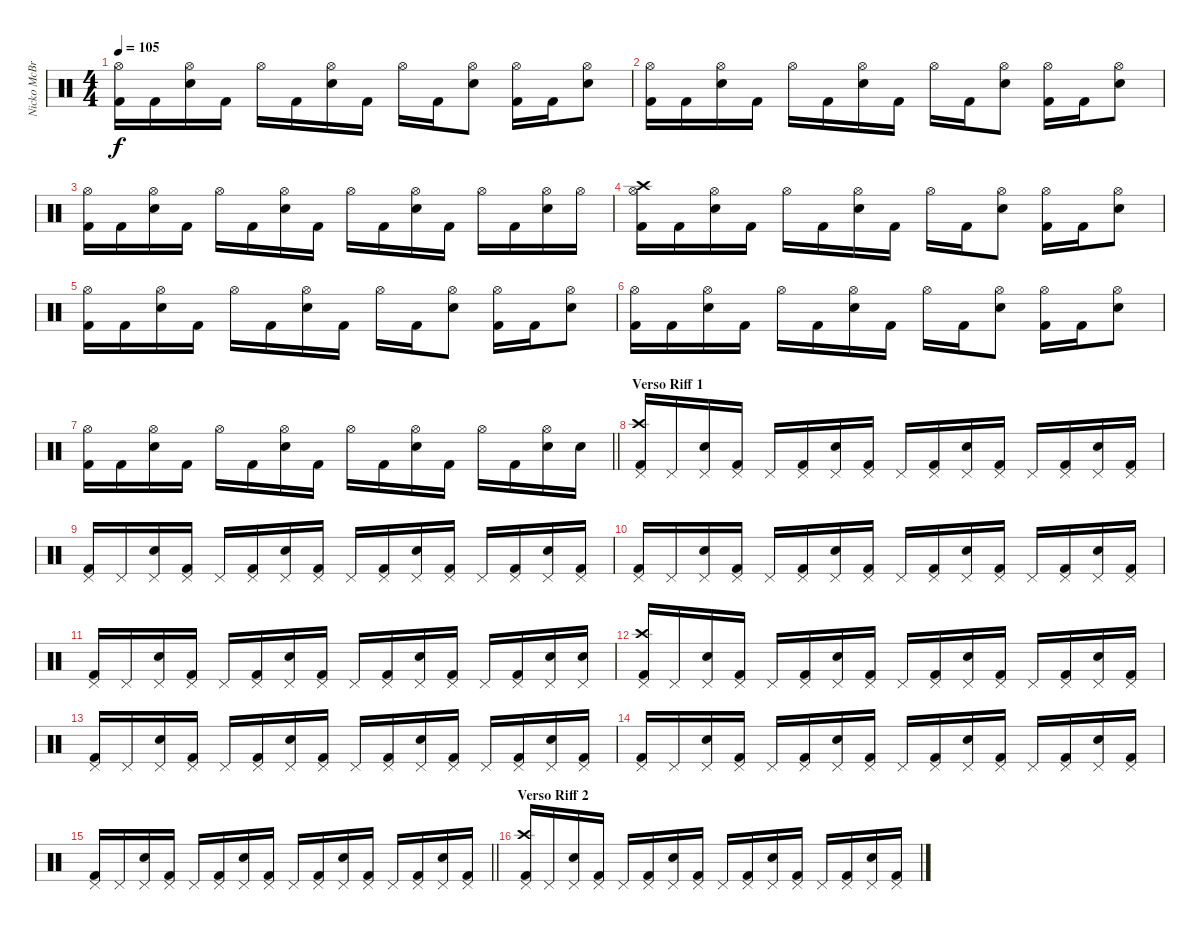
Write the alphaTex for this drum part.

\track ("Nicko McBrain" "Nicko McBr") {instrument percussion}
\staff {score}
\articulation defaults
\ts (4 4)
\tempo 105
\clef neutral
\ks c
("Kick (hit) 2" "Hi-Hat (open)").16{dy f} "Kick (hit) 2".16 ("Snare (hit) 2" "Hi-Hat (open)").16 "Kick (hit) 2".16 "Hi-Hat (open)".16 "Kick (hit) 2".16 ("Snare (hit) 2" "Hi-Hat (open)").16 "Kick (hit) 2".16 "Hi-Hat (open)".16 "Kick (hit) 2".16 ("Snare (hit) 2" "Hi-Hat (open)").8 ("Kick (hit) 2" "Hi-Hat (open)").16 "Kick (hit) 2".16 ("Snare (hit) 2" "Hi-Hat (open)").8 |
("Kick (hit) 2" "Hi-Hat (open)").16 "Kick (hit) 2".16 ("Snare (hit) 2" "Hi-Hat (open)").16 "Kick (hit) 2".16 "Hi-Hat (open)".16 "Kick (hit) 2".16 ("Snare (hit) 2" "Hi-Hat (open)").16 "Kick (hit) 2".16 "Hi-Hat (open)".16 "Kick (hit) 2".16 ("Snare (hit) 2" "Hi-Hat (open)").8 ("Kick (hit) 2" "Hi-Hat (open)").16 "Kick (hit) 2".16 ("Snare (hit) 2" "Hi-Hat (open)").8 |
("Kick (hit) 2" "Hi-Hat (open)").16 "Kick (hit) 2".16 ("Snare (hit) 2" "Hi-Hat (open)").16 "Kick (hit) 2".16 "Hi-Hat (open)".16 "Kick (hit) 2".16 ("Snare (hit) 2" "Hi-Hat (open)").16 "Kick (hit) 2".16 "Hi-Hat (open)".16 "Kick (hit) 2".16 ("Snare (hit) 2" "Hi-Hat (open)").16 "Kick (hit) 2".16 "Hi-Hat (open)".16 "Kick (hit) 2".16 ("Snare (hit) 2" "Hi-Hat (open)").16 "Hi-Hat (open)".16 |
("Kick (hit) 2" "Hi-Hat (open)" "Crash high (hit)").16 "Kick (hit) 2".16 ("Snare (hit) 2" "Hi-Hat (open)").16 "Kick (hit) 2".16 "Hi-Hat (open)".16 "Kick (hit) 2".16 ("Snare (hit) 2" "Hi-Hat (open)").16 "Kick (hit) 2".16 "Hi-Hat (open)".16 "Kick (hit) 2".16 ("Snare (hit) 2" "Hi-Hat (open)").8 ("Kick (hit) 2" "Hi-Hat (open)").16 "Kick (hit) 2".16 ("Snare (hit) 2" "Hi-Hat (open)").8 |
("Kick (hit) 2" "Hi-Hat (open)").16 "Kick (hit) 2".16 ("Snare (hit) 2" "Hi-Hat (open)").16 "Kick (hit) 2".16 "Hi-Hat (open)".16 "Kick (hit) 2".16 ("Snare (hit) 2" "Hi-Hat (open)").16 "Kick (hit) 2".16 "Hi-Hat (open)".16 "Kick (hit) 2".16 ("Snare (hit) 2" "Hi-Hat (open)").8 ("Kick (hit) 2" "Hi-Hat (open)").16 "Kick (hit) 2".16 ("Snare (hit) 2" "Hi-Hat (open)").8 |
("Kick (hit) 2" "Hi-Hat (open)").16 "Kick (hit) 2".16 ("Snare (hit) 2" "Hi-Hat (open)").16 "Kick (hit) 2".16 "Hi-Hat (open)".16 "Kick (hit) 2".16 ("Snare (hit) 2" "Hi-Hat (open)").16 "Kick (hit) 2".16 "Hi-Hat (open)".16 "Kick (hit) 2".16 ("Snare (hit) 2" "Hi-Hat (open)").8 ("Kick (hit) 2" "Hi-Hat (open)").16 "Kick (hit) 2".16 ("Snare (hit) 2" "Hi-Hat (open)").8 |
\barLineRight lightlight
("Kick (hit) 2" "Hi-Hat (open)").16 "Kick (hit) 2".16 ("Snare (hit) 2" "Hi-Hat (open)").16 "Kick (hit) 2".16 "Hi-Hat (open)".16 "Kick (hit) 2".16 ("Snare (hit) 2" "Hi-Hat (open)").16 "Kick (hit) 2".16 "Hi-Hat (open)".16 "Kick (hit) 2".16 ("Snare (hit) 2" "Hi-Hat (open)").16 "Kick (hit) 2".16 "Hi-Hat (open)".16 "Kick (hit) 2".16 ("Snare (hit) 2" "Hi-Hat (open)").16 "Snare (hit) 2".16 |
\section ("" "Verso Riff 1")
("Kick (hit) 2" "Pedal Hi-Hat (hit)" "Crash high (hit)").16 "Pedal Hi-Hat (hit)".16 ("Snare (hit) 2" "Pedal Hi-Hat (hit)").16 ("Kick (hit) 2" "Pedal Hi-Hat (hit)").16 "Pedal Hi-Hat (hit)".16 ("Kick (hit) 2" "Pedal Hi-Hat (hit)").16 ("Snare (hit) 2" "Pedal Hi-Hat (hit)").16 ("Kick (hit) 2" "Pedal Hi-Hat (hit)").16 "Pedal Hi-Hat (hit)".16 ("Kick (hit) 2" "Pedal Hi-Hat (hit)").16 ("Snare (hit) 2" "Pedal Hi-Hat (hit)").16 ("Kick (hit) 2" "Pedal Hi-Hat (hit)").16 "Pedal Hi-Hat (hit)".16 ("Kick (hit) 2" "Pedal Hi-Hat (hit)").16 ("Snare (hit) 2" "Pedal Hi-Hat (hit)").16 ("Kick (hit) 2" "Pedal Hi-Hat (hit)").16 |
("Kick (hit) 2" "Pedal Hi-Hat (hit)").16 "Pedal Hi-Hat (hit)".16 ("Snare (hit) 2" "Pedal Hi-Hat (hit)").16 ("Kick (hit) 2" "Pedal Hi-Hat (hit)").16 "Pedal Hi-Hat (hit)".16 ("Kick (hit) 2" "Pedal Hi-Hat (hit)").16 ("Snare (hit) 2" "Pedal Hi-Hat (hit)").16 ("Kick (hit) 2" "Pedal Hi-Hat (hit)").16 "Pedal Hi-Hat (hit)".16 ("Kick (hit) 2" "Pedal Hi-Hat (hit)").16 ("Snare (hit) 2" "Pedal Hi-Hat (hit)").16 ("Kick (hit) 2" "Pedal Hi-Hat (hit)").16 "Pedal Hi-Hat (hit)".16 ("Kick (hit) 2" "Pedal Hi-Hat (hit)").16 ("Snare (hit) 2" "Pedal Hi-Hat (hit)").16 ("Kick (hit) 2" "Pedal Hi-Hat (hit)").16 |
("Kick (hit) 2" "Pedal Hi-Hat (hit)").16 "Pedal Hi-Hat (hit)".16 ("Snare (hit) 2" "Pedal Hi-Hat (hit)").16 ("Kick (hit) 2" "Pedal Hi-Hat (hit)").16 "Pedal Hi-Hat (hit)".16 ("Kick (hit) 2" "Pedal Hi-Hat (hit)").16 ("Snare (hit) 2" "Pedal Hi-Hat (hit)").16 ("Kick (hit) 2" "Pedal Hi-Hat (hit)").16 "Pedal Hi-Hat (hit)".16 ("Kick (hit) 2" "Pedal Hi-Hat (hit)").16 ("Snare (hit) 2" "Pedal Hi-Hat (hit)").16 ("Kick (hit) 2" "Pedal Hi-Hat (hit)").16 "Pedal Hi-Hat (hit)".16 ("Kick (hit) 2" "Pedal Hi-Hat (hit)").16 ("Snare (hit) 2" "Pedal Hi-Hat (hit)").16 ("Kick (hit) 2" "Pedal Hi-Hat (hit)").16 |
("Kick (hit) 2" "Pedal Hi-Hat (hit)").16 "Pedal Hi-Hat (hit)".16 ("Snare (hit) 2" "Pedal Hi-Hat (hit)").16 ("Kick (hit) 2" "Pedal Hi-Hat (hit)").16 "Pedal Hi-Hat (hit)".16 ("Kick (hit) 2" "Pedal Hi-Hat (hit)").16 ("Snare (hit) 2" "Pedal Hi-Hat (hit)").16 ("Kick (hit) 2" "Pedal Hi-Hat (hit)").16 "Pedal Hi-Hat (hit)".16 ("Kick (hit) 2" "Pedal Hi-Hat (hit)").16 ("Snare (hit) 2" "Pedal Hi-Hat (hit)").16 ("Kick (hit) 2" "Pedal Hi-Hat (hit)").16 "Pedal Hi-Hat (hit)".16 ("Kick (hit) 2" "Pedal Hi-Hat (hit)").16 ("Snare (hit) 2" "Pedal Hi-Hat (hit)").16 ("Snare (hit) 2" "Pedal Hi-Hat (hit)").16 |
("Kick (hit) 2" "Pedal Hi-Hat (hit)" "Crash high (hit)").16 "Pedal Hi-Hat (hit)".16 ("Snare (hit) 2" "Pedal Hi-Hat (hit)").16 ("Kick (hit) 2" "Pedal Hi-Hat (hit)").16 "Pedal Hi-Hat (hit)".16 ("Kick (hit) 2" "Pedal Hi-Hat (hit)").16 ("Snare (hit) 2" "Pedal Hi-Hat (hit)").16 ("Kick (hit) 2" "Pedal Hi-Hat (hit)").16 "Pedal Hi-Hat (hit)".16 ("Kick (hit) 2" "Pedal Hi-Hat (hit)").16 ("Snare (hit) 2" "Pedal Hi-Hat (hit)").16 ("Kick (hit) 2" "Pedal Hi-Hat (hit)").16 "Pedal Hi-Hat (hit)".16 ("Kick (hit) 2" "Pedal Hi-Hat (hit)").16 ("Snare (hit) 2" "Pedal Hi-Hat (hit)").16 ("Kick (hit) 2" "Pedal Hi-Hat (hit)").16 |
("Kick (hit) 2" "Pedal Hi-Hat (hit)").16 "Pedal Hi-Hat (hit)".16 ("Snare (hit) 2" "Pedal Hi-Hat (hit)").16 ("Kick (hit) 2" "Pedal Hi-Hat (hit)").16 "Pedal Hi-Hat (hit)".16 ("Kick (hit) 2" "Pedal Hi-Hat (hit)").16 ("Snare (hit) 2" "Pedal Hi-Hat (hit)").16 ("Kick (hit) 2" "Pedal Hi-Hat (hit)").16 "Pedal Hi-Hat (hit)".16 ("Kick (hit) 2" "Pedal Hi-Hat (hit)").16 ("Snare (hit) 2" "Pedal Hi-Hat (hit)").16 ("Kick (hit) 2" "Pedal Hi-Hat (hit)").16 "Pedal Hi-Hat (hit)".16 ("Kick (hit) 2" "Pedal Hi-Hat (hit)").16 ("Snare (hit) 2" "Pedal Hi-Hat (hit)").16 ("Kick (hit) 2" "Pedal Hi-Hat (hit)").16 |
("Kick (hit) 2" "Pedal Hi-Hat (hit)").16 "Pedal Hi-Hat (hit)".16 ("Snare (hit) 2" "Pedal Hi-Hat (hit)").16 ("Kick (hit) 2" "Pedal Hi-Hat (hit)").16 "Pedal Hi-Hat (hit)".16 ("Kick (hit) 2" "Pedal Hi-Hat (hit)").16 ("Snare (hit) 2" "Pedal Hi-Hat (hit)").16 ("Kick (hit) 2" "Pedal Hi-Hat (hit)").16 "Pedal Hi-Hat (hit)".16 ("Kick (hit) 2" "Pedal Hi-Hat (hit)").16 ("Snare (hit) 2" "Pedal Hi-Hat (hit)").16 ("Kick (hit) 2" "Pedal Hi-Hat (hit)").16 "Pedal Hi-Hat (hit)".16 ("Kick (hit) 2" "Pedal Hi-Hat (hit)").16 ("Snare (hit) 2" "Pedal Hi-Hat (hit)").16 ("Kick (hit) 2" "Pedal Hi-Hat (hit)").16 |
\barLineRight lightlight
("Kick (hit) 2" "Pedal Hi-Hat (hit)").16 "Pedal Hi-Hat (hit)".16 ("Snare (hit) 2" "Pedal Hi-Hat (hit)").16 ("Kick (hit) 2" "Pedal Hi-Hat (hit)").16 "Pedal Hi-Hat (hit)".16 ("Kick (hit) 2" "Pedal Hi-Hat (hit)").16 ("Snare (hit) 2" "Pedal Hi-Hat (hit)").16 ("Kick (hit) 2" "Pedal Hi-Hat (hit)").16 "Pedal Hi-Hat (hit)".16 ("Kick (hit) 2" "Pedal Hi-Hat (hit)").16 ("Snare (hit) 2" "Pedal Hi-Hat (hit)").16 ("Kick (hit) 2" "Pedal Hi-Hat (hit)").16 "Pedal Hi-Hat (hit)".16 ("Kick (hit) 2" "Pedal Hi-Hat (hit)").16 ("Snare (hit) 2" "Pedal Hi-Hat (hit)").16 ("Kick (hit) 2" "Pedal Hi-Hat (hit)").16 |
\section ("" "Verso Riff 2")
("Kick (hit) 2" "Pedal Hi-Hat (hit)" "Crash high (hit)").16 "Pedal Hi-Hat (hit)".16 ("Snare (hit) 2" "Pedal Hi-Hat (hit)").16 ("Kick (hit) 2" "Pedal Hi-Hat (hit)").16 "Pedal Hi-Hat (hit)".16 ("Kick (hit) 2" "Pedal Hi-Hat (hit)").16 ("Snare (hit) 2" "Pedal Hi-Hat (hit)").16 ("Kick (hit) 2" "Pedal Hi-Hat (hit)").16 "Pedal Hi-Hat (hit)".16 ("Kick (hit) 2" "Pedal Hi-Hat (hit)").16 ("Snare (hit) 2" "Pedal Hi-Hat (hit)").16 ("Kick (hit) 2" "Pedal Hi-Hat (hit)").16 "Pedal Hi-Hat (hit)".16 ("Kick (hit) 2" "Pedal Hi-Hat (hit)").16 ("Snare (hit) 2" "Pedal Hi-Hat (hit)").16 ("Kick (hit) 2" "Pedal Hi-Hat (hit)").16
